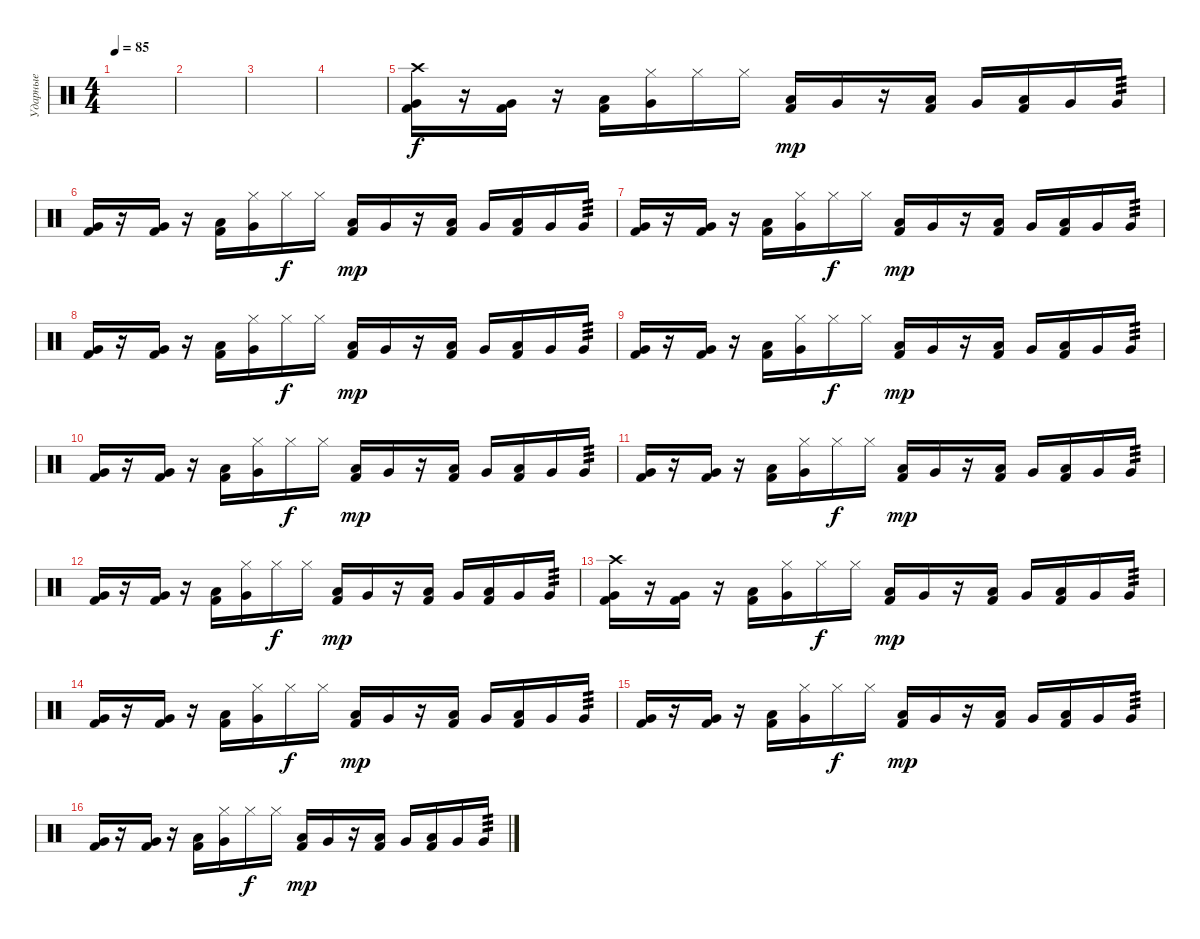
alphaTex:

\track ("Ударные" "Ударные") {instrument percussion}
\staff {score}
\articulation defaults
\ts (4 4)
\tempo 85
\clef neutral
\ks c
|
|
|
|
("Crash high (hit)" "Very Low Tom (hit)" "Kick (hit) 2").16 r.16 ("Very Low Tom (hit)" "Kick (hit) 2").16 r.16 ("Low Tom (hit)" "Kick (hit) 2").16 ("Hi-Hat (closed)" "Very Low Tom (hit)").16 "Hi-Hat (closed)".16{dy f} "Hi-Hat (closed)".16 ("Low Tom (hit)" "Kick (hit) 2").16{dy mp} "Very Low Tom (hit)".16 r.16 ("Low Tom (hit)" "Kick (hit) 2").16 "Very Low Tom (hit)".16 ("Low Tom (hit)" "Kick (hit) 2").16 "Very Low Tom (hit)".16 "Very Low Tom (hit)".16{tp 3} |
("Very Low Tom (hit)" "Kick (hit) 2").16 r.16 ("Very Low Tom (hit)" "Kick (hit) 2").16 r.16 ("Low Tom (hit)" "Kick (hit) 2").16 ("Hi-Hat (closed)" "Very Low Tom (hit)").16 "Hi-Hat (closed)".16{dy f} "Hi-Hat (closed)".16 ("Low Tom (hit)" "Kick (hit) 2").16{dy mp} "Very Low Tom (hit)".16 r.16 ("Low Tom (hit)" "Kick (hit) 2").16 "Very Low Tom (hit)".16 ("Low Tom (hit)" "Kick (hit) 2").16 "Very Low Tom (hit)".16 "Very Low Tom (hit)".16{tp 3} |
("Very Low Tom (hit)" "Kick (hit) 2").16 r.16 ("Very Low Tom (hit)" "Kick (hit) 2").16 r.16 ("Low Tom (hit)" "Kick (hit) 2").16 ("Hi-Hat (closed)" "Very Low Tom (hit)").16 "Hi-Hat (closed)".16{dy f} "Hi-Hat (closed)".16 ("Low Tom (hit)" "Kick (hit) 2").16{dy mp} "Very Low Tom (hit)".16 r.16 ("Low Tom (hit)" "Kick (hit) 2").16 "Very Low Tom (hit)".16 ("Low Tom (hit)" "Kick (hit) 2").16 "Very Low Tom (hit)".16 "Very Low Tom (hit)".16{tp 3} |
("Very Low Tom (hit)" "Kick (hit) 2").16 r.16 ("Very Low Tom (hit)" "Kick (hit) 2").16 r.16 ("Low Tom (hit)" "Kick (hit) 2").16 ("Hi-Hat (closed)" "Very Low Tom (hit)").16 "Hi-Hat (closed)".16{dy f} "Hi-Hat (closed)".16 ("Low Tom (hit)" "Kick (hit) 2").16{dy mp} "Very Low Tom (hit)".16 r.16 ("Low Tom (hit)" "Kick (hit) 2").16 "Very Low Tom (hit)".16 ("Low Tom (hit)" "Kick (hit) 2").16 "Very Low Tom (hit)".16 "Very Low Tom (hit)".16{tp 3} |
("Very Low Tom (hit)" "Kick (hit) 2").16 r.16 ("Very Low Tom (hit)" "Kick (hit) 2").16 r.16 ("Low Tom (hit)" "Kick (hit) 2").16 ("Hi-Hat (closed)" "Very Low Tom (hit)").16 "Hi-Hat (closed)".16{dy f} "Hi-Hat (closed)".16 ("Low Tom (hit)" "Kick (hit) 2").16{dy mp} "Very Low Tom (hit)".16 r.16 ("Low Tom (hit)" "Kick (hit) 2").16 "Very Low Tom (hit)".16 ("Low Tom (hit)" "Kick (hit) 2").16 "Very Low Tom (hit)".16 "Very Low Tom (hit)".16{tp 3} |
("Very Low Tom (hit)" "Kick (hit) 2").16 r.16 ("Very Low Tom (hit)" "Kick (hit) 2").16 r.16 ("Low Tom (hit)" "Kick (hit) 2").16 ("Hi-Hat (closed)" "Very Low Tom (hit)").16 "Hi-Hat (closed)".16{dy f} "Hi-Hat (closed)".16 ("Low Tom (hit)" "Kick (hit) 2").16{dy mp} "Very Low Tom (hit)".16 r.16 ("Low Tom (hit)" "Kick (hit) 2").16 "Very Low Tom (hit)".16 ("Low Tom (hit)" "Kick (hit) 2").16 "Very Low Tom (hit)".16 "Very Low Tom (hit)".16{tp 3} |
("Very Low Tom (hit)" "Kick (hit) 2").16 r.16 ("Very Low Tom (hit)" "Kick (hit) 2").16 r.16 ("Low Tom (hit)" "Kick (hit) 2").16 ("Hi-Hat (closed)" "Very Low Tom (hit)").16 "Hi-Hat (closed)".16{dy f} "Hi-Hat (closed)".16 ("Low Tom (hit)" "Kick (hit) 2").16{dy mp} "Very Low Tom (hit)".16 r.16 ("Low Tom (hit)" "Kick (hit) 2").16 "Very Low Tom (hit)".16 ("Low Tom (hit)" "Kick (hit) 2").16 "Very Low Tom (hit)".16 "Very Low Tom (hit)".16{tp 3} |
("Very Low Tom (hit)" "Kick (hit) 2").16 r.16 ("Very Low Tom (hit)" "Kick (hit) 2").16 r.16 ("Low Tom (hit)" "Kick (hit) 2").16 ("Hi-Hat (closed)" "Very Low Tom (hit)").16 "Hi-Hat (closed)".16{dy f} "Hi-Hat (closed)".16 ("Low Tom (hit)" "Kick (hit) 2").16{dy mp} "Very Low Tom (hit)".16 r.16 ("Low Tom (hit)" "Kick (hit) 2").16 "Very Low Tom (hit)".16 ("Low Tom (hit)" "Kick (hit) 2").16 "Very Low Tom (hit)".16 "Very Low Tom (hit)".16{tp 3} |
("Crash high (hit)" "Very Low Tom (hit)" "Kick (hit) 2").16 r.16 ("Very Low Tom (hit)" "Kick (hit) 2").16 r.16 ("Low Tom (hit)" "Kick (hit) 2").16 ("Hi-Hat (closed)" "Very Low Tom (hit)").16 "Hi-Hat (closed)".16{dy f} "Hi-Hat (closed)".16 ("Low Tom (hit)" "Kick (hit) 2").16{dy mp} "Very Low Tom (hit)".16 r.16 ("Low Tom (hit)" "Kick (hit) 2").16 "Very Low Tom (hit)".16 ("Low Tom (hit)" "Kick (hit) 2").16 "Very Low Tom (hit)".16 "Very Low Tom (hit)".16{tp 3} |
("Very Low Tom (hit)" "Kick (hit) 2").16 r.16 ("Very Low Tom (hit)" "Kick (hit) 2").16 r.16 ("Low Tom (hit)" "Kick (hit) 2").16 ("Hi-Hat (closed)" "Very Low Tom (hit)").16 "Hi-Hat (closed)".16{dy f} "Hi-Hat (closed)".16 ("Low Tom (hit)" "Kick (hit) 2").16{dy mp} "Very Low Tom (hit)".16 r.16 ("Low Tom (hit)" "Kick (hit) 2").16 "Very Low Tom (hit)".16 ("Low Tom (hit)" "Kick (hit) 2").16 "Very Low Tom (hit)".16 "Very Low Tom (hit)".16{tp 3} |
("Very Low Tom (hit)" "Kick (hit) 2").16 r.16 ("Very Low Tom (hit)" "Kick (hit) 2").16 r.16 ("Low Tom (hit)" "Kick (hit) 2").16 ("Hi-Hat (closed)" "Very Low Tom (hit)").16 "Hi-Hat (closed)".16{dy f} "Hi-Hat (closed)".16 ("Low Tom (hit)" "Kick (hit) 2").16{dy mp} "Very Low Tom (hit)".16 r.16 ("Low Tom (hit)" "Kick (hit) 2").16 "Very Low Tom (hit)".16 ("Low Tom (hit)" "Kick (hit) 2").16 "Very Low Tom (hit)".16 "Very Low Tom (hit)".16{tp 3} |
("Very Low Tom (hit)" "Kick (hit) 2").16 r.16 ("Very Low Tom (hit)" "Kick (hit) 2").16 r.16 ("Low Tom (hit)" "Kick (hit) 2").16 ("Hi-Hat (closed)" "Very Low Tom (hit)").16 "Hi-Hat (closed)".16{dy f} "Hi-Hat (closed)".16 ("Low Tom (hit)" "Kick (hit) 2").16{dy mp} "Very Low Tom (hit)".16 r.16 ("Low Tom (hit)" "Kick (hit) 2").16 "Very Low Tom (hit)".16 ("Low Tom (hit)" "Kick (hit) 2").16 "Very Low Tom (hit)".16 "Very Low Tom (hit)".16{tp 3}
